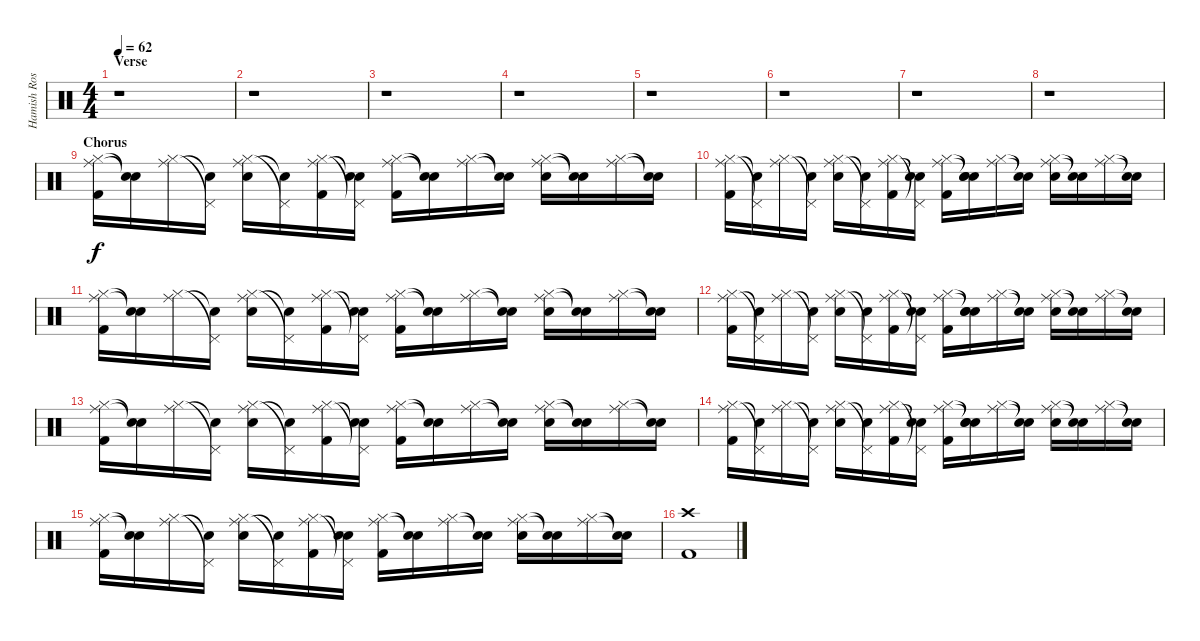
\track ("Hamish Rosser" "Hamish Ros") {instrument percussion}
\staff {score}
\articulation defaults
\ts (4 4)
\section ("" "Verse")
\tempo 62
\clef neutral
\ks c
r.1{dy f} |
r.1 |
r.1 |
r.1 |
r.1 |
r.1 |
r.1 |
r.1 |
\section ("" "Chorus")
("Hi-Hat (closed)" "Ride (middle)" "Kick (hit) 2").16 ("Snare (hit)"{t} "Snare (hit)"{t}).16 ("Hi-Hat (closed)" "Ride (middle)").16 ("Pedal Hi-Hat (hit)"{t} "Snare (hit)"{t}).16 ("Hi-Hat (closed)" "Ride (middle)" "Electric Snare (hit)").16 ("Pedal Hi-Hat (hit)"{t} "Snare (hit)"{t}).16 ("Hi-Hat (closed)" "Ride (middle)" "Kick (hit) 2").16 ("Pedal Hi-Hat (hit)"{t} "Snare (hit)"{t} "Electric Snare (hit)").16 ("Hi-Hat (closed)" "Ride (middle)" "Kick (hit) 2").16 ("Snare (hit)"{t} "Snare (hit)"{t}).16 ("Hi-Hat (closed)" "Ride (middle)").16 ("Snare (hit)"{t} "Snare (hit)"{t}).16 ("Hi-Hat (closed)" "Ride (middle)" "Electric Snare (hit)").16 ("Snare (hit)"{t} "Snare (hit)"{t}).16 ("Hi-Hat (closed)" "Ride (middle)").16 ("Snare (hit)"{t} "Snare (hit)"{t}).16 |
("Hi-Hat (closed)" "Ride (middle)" "Kick (hit) 2").16 ("Pedal Hi-Hat (hit)"{t} "Snare (hit)"{t}).16 ("Hi-Hat (closed)" "Ride (middle)").16 ("Pedal Hi-Hat (hit)"{t} "Snare (hit)"{t}).16 ("Hi-Hat (closed)" "Ride (middle)" "Electric Snare (hit)").16 ("Pedal Hi-Hat (hit)"{t} "Snare (hit)"{t}).16 ("Hi-Hat (closed)" "Ride (middle)" "Kick (hit) 2").16 ("Pedal Hi-Hat (hit)"{t} "Snare (hit)"{t} "Electric Snare (hit)").16 ("Hi-Hat (closed)" "Ride (middle)" "Kick (hit) 2").16 ("Snare (hit)"{t} "Snare (hit)"{t} "Electric Snare (hit)").16 ("Hi-Hat (closed)" "Ride (middle)").16 ("Snare (hit)"{t} "Snare (hit)"{t}).16 ("Hi-Hat (closed)" "Ride (middle)" "Electric Snare (hit)").16 ("Snare (hit)"{t} "Snare (hit)"{t}).16 ("Hi-Hat (closed)" "Ride (middle)").16 ("Snare (hit)"{t} "Snare (hit)"{t}).16 |
("Hi-Hat (closed)" "Ride (middle)" "Kick (hit) 2").16 ("Snare (hit)"{t} "Snare (hit)"{t}).16 ("Hi-Hat (closed)" "Ride (middle)").16 ("Pedal Hi-Hat (hit)"{t} "Snare (hit)"{t}).16 ("Hi-Hat (closed)" "Ride (middle)" "Electric Snare (hit)").16 ("Pedal Hi-Hat (hit)"{t} "Snare (hit)"{t}).16 ("Hi-Hat (closed)" "Ride (middle)" "Kick (hit) 2").16 ("Pedal Hi-Hat (hit)"{t} "Snare (hit)"{t} "Electric Snare (hit)").16 ("Hi-Hat (closed)" "Ride (middle)" "Kick (hit) 2").16 ("Snare (hit)"{t} "Snare (hit)"{t}).16 ("Hi-Hat (closed)" "Ride (middle)").16 ("Snare (hit)"{t} "Snare (hit)"{t}).16 ("Hi-Hat (closed)" "Ride (middle)" "Electric Snare (hit)").16 ("Snare (hit)"{t} "Snare (hit)"{t}).16 ("Hi-Hat (closed)" "Ride (middle)").16 ("Snare (hit)"{t} "Snare (hit)"{t}).16 |
("Hi-Hat (closed)" "Ride (middle)" "Kick (hit) 2").16 ("Pedal Hi-Hat (hit)"{t} "Snare (hit)"{t}).16 ("Hi-Hat (closed)" "Ride (middle)").16 ("Pedal Hi-Hat (hit)"{t} "Snare (hit)"{t}).16 ("Hi-Hat (closed)" "Ride (middle)" "Electric Snare (hit)").16 ("Pedal Hi-Hat (hit)"{t} "Snare (hit)"{t}).16 ("Hi-Hat (closed)" "Ride (middle)" "Kick (hit) 2").16 ("Pedal Hi-Hat (hit)"{t} "Snare (hit)"{t} "Electric Snare (hit)").16 ("Hi-Hat (closed)" "Ride (middle)" "Kick (hit) 2").16 ("Snare (hit)"{t} "Snare (hit)"{t} "Electric Snare (hit)").16 ("Hi-Hat (closed)" "Ride (middle)").16 ("Snare (hit)"{t} "Snare (hit)"{t}).16 ("Hi-Hat (closed)" "Ride (middle)" "Electric Snare (hit)").16 ("Snare (hit)"{t} "Snare (hit)"{t}).16 ("Hi-Hat (closed)" "Ride (middle)").16 ("Snare (hit)"{t} "Snare (hit)"{t}).16 |
("Hi-Hat (closed)" "Ride (middle)" "Kick (hit) 2").16 ("Snare (hit)"{t} "Snare (hit)"{t}).16 ("Hi-Hat (closed)" "Ride (middle)").16 ("Pedal Hi-Hat (hit)"{t} "Snare (hit)"{t}).16 ("Hi-Hat (closed)" "Ride (middle)" "Electric Snare (hit)").16 ("Pedal Hi-Hat (hit)"{t} "Snare (hit)"{t}).16 ("Hi-Hat (closed)" "Ride (middle)" "Kick (hit) 2").16 ("Pedal Hi-Hat (hit)"{t} "Snare (hit)"{t} "Electric Snare (hit)").16 ("Hi-Hat (closed)" "Ride (middle)" "Kick (hit) 2").16 ("Snare (hit)"{t} "Snare (hit)"{t}).16 ("Hi-Hat (closed)" "Ride (middle)").16 ("Snare (hit)"{t} "Snare (hit)"{t}).16 ("Hi-Hat (closed)" "Ride (middle)" "Electric Snare (hit)").16 ("Snare (hit)"{t} "Snare (hit)"{t}).16 ("Hi-Hat (closed)" "Ride (middle)").16 ("Snare (hit)"{t} "Snare (hit)"{t}).16 |
("Hi-Hat (closed)" "Ride (middle)" "Kick (hit) 2").16 ("Pedal Hi-Hat (hit)"{t} "Snare (hit)"{t}).16 ("Hi-Hat (closed)" "Ride (middle)").16 ("Pedal Hi-Hat (hit)"{t} "Snare (hit)"{t}).16 ("Hi-Hat (closed)" "Ride (middle)" "Electric Snare (hit)").16 ("Pedal Hi-Hat (hit)"{t} "Snare (hit)"{t}).16 ("Hi-Hat (closed)" "Ride (middle)" "Kick (hit) 2").16 ("Pedal Hi-Hat (hit)"{t} "Snare (hit)"{t} "Electric Snare (hit)").16 ("Hi-Hat (closed)" "Ride (middle)" "Kick (hit) 2").16 ("Snare (hit)"{t} "Snare (hit)"{t} "Electric Snare (hit)").16 ("Hi-Hat (closed)" "Ride (middle)").16 ("Snare (hit)"{t} "Snare (hit)"{t}).16 ("Hi-Hat (closed)" "Ride (middle)" "Electric Snare (hit)").16 ("Snare (hit)"{t} "Snare (hit)"{t}).16 ("Hi-Hat (closed)" "Ride (middle)").16 ("Snare (hit)"{t} "Snare (hit)"{t}).16 |
("Hi-Hat (closed)" "Ride (middle)" "Kick (hit) 2").16 ("Snare (hit)"{t} "Snare (hit)"{t}).16 ("Hi-Hat (closed)" "Ride (middle)").16 ("Pedal Hi-Hat (hit)"{t} "Snare (hit)"{t}).16 ("Hi-Hat (closed)" "Ride (middle)" "Electric Snare (hit)").16 ("Pedal Hi-Hat (hit)"{t} "Snare (hit)"{t}).16 ("Hi-Hat (closed)" "Ride (middle)" "Kick (hit) 2").16 ("Pedal Hi-Hat (hit)"{t} "Snare (hit)"{t} "Electric Snare (hit)").16 ("Hi-Hat (closed)" "Ride (middle)" "Kick (hit) 2").16 ("Snare (hit)"{t} "Snare (hit)"{t}).16 ("Hi-Hat (closed)" "Ride (middle)").16 ("Snare (hit)"{t} "Snare (hit)"{t}).16 ("Hi-Hat (closed)" "Ride (middle)" "Electric Snare (hit)").16 ("Snare (hit)"{t} "Snare (hit)"{t}).16 ("Hi-Hat (closed)" "Ride (middle)").16 ("Snare (hit)"{t} "Snare (hit)"{t}).16 |
("Crash high (hit)" "Kick (hit) 2").1
